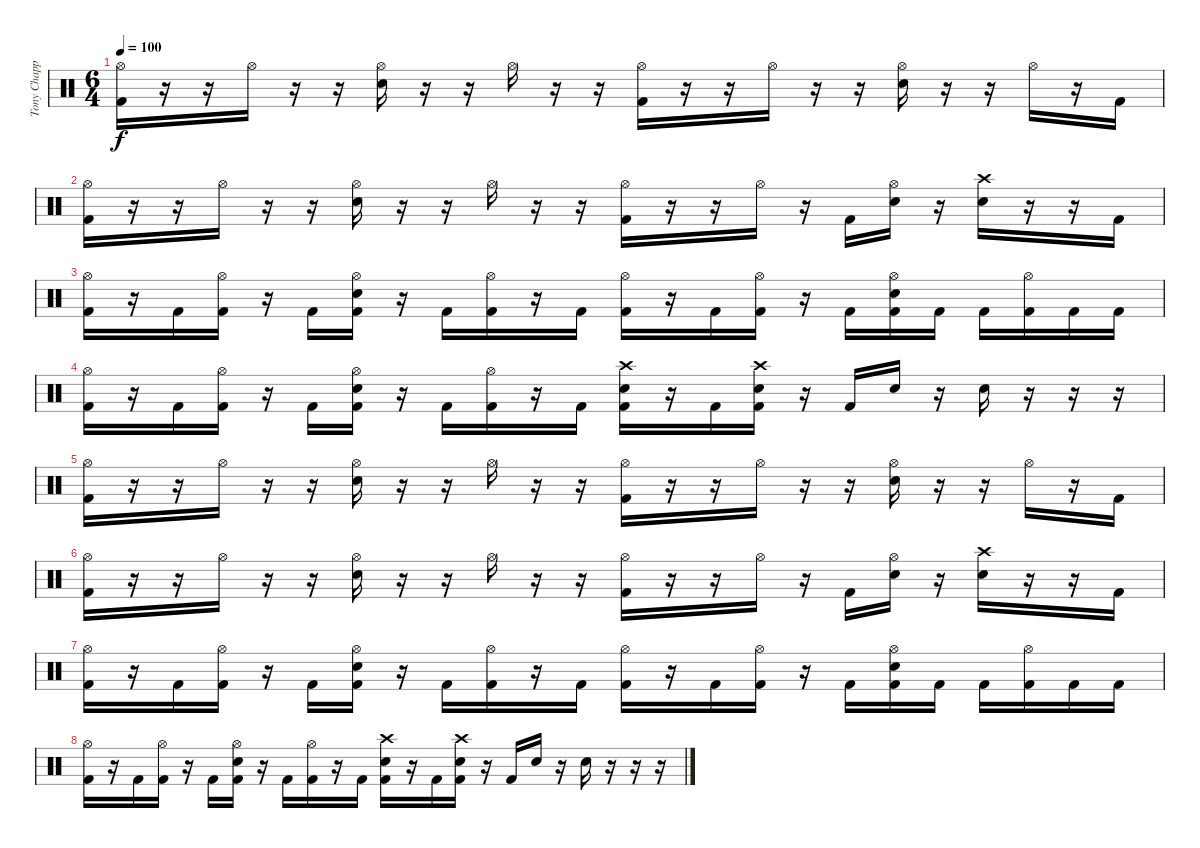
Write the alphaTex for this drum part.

\track ("Tony Chappelle: Drums" "Tony Chapp") {instrument percussion}
\staff {score}
\articulation defaults
\ts (6 4)
\tempo 100
\clef neutral
\ks c
("Hi-Hat (open)" "Kick (hit) 2").16{dy f} r.16 r.16 "Hi-Hat (open)".16 r.16 r.16 ("Hi-Hat (open)" "Electric Snare (hit)").16 r.16 r.16 "Hi-Hat (open)".16 r.16 r.16 ("Hi-Hat (open)" "Kick (hit) 2").16 r.16 r.16 "Hi-Hat (open)".16 r.16 r.16 ("Hi-Hat (open)" "Electric Snare (hit)").16 r.16 r.16 "Hi-Hat (open)".16 r.16 "Kick (hit) 2".16 |
("Hi-Hat (open)" "Kick (hit) 2").16 r.16 r.16 "Hi-Hat (open)".16 r.16 r.16 ("Hi-Hat (open)" "Electric Snare (hit)").16 r.16 r.16 "Hi-Hat (open)".16 r.16 r.16 ("Hi-Hat (open)" "Kick (hit) 2").16 r.16 r.16 "Hi-Hat (open)".16 r.16 "Kick (hit) 2".16 ("Hi-Hat (open)" "Electric Snare (hit)").16 r.16 ("Crash high (hit)" "Electric Snare (hit)").16 r.16 r.16 "Kick (hit) 2".16 |
("Hi-Hat (open)" "Kick (hit) 2").16 r.16 "Kick (hit) 2".16 ("Hi-Hat (open)" "Kick (hit) 2").16 r.16 "Kick (hit) 2".16 ("Kick (hit) 2" "Hi-Hat (open)" "Electric Snare (hit)").16 r.16 "Kick (hit) 2".16 ("Hi-Hat (open)" "Kick (hit) 2").16 r.16 "Kick (hit) 2".16 ("Hi-Hat (open)" "Kick (hit) 2").16 r.16 "Kick (hit) 2".16 ("Hi-Hat (open)" "Kick (hit) 2").16 r.16 "Kick (hit) 2".16 ("Kick (hit) 2" "Hi-Hat (open)" "Electric Snare (hit)").16 "Kick (hit) 2".16 "Kick (hit) 2".16 ("Hi-Hat (open)" "Kick (hit) 2").16 "Kick (hit) 2".16 "Kick (hit) 2".16 |
("Hi-Hat (open)" "Kick (hit) 2").16 r.16 "Kick (hit) 2".16 ("Hi-Hat (open)" "Kick (hit) 2").16 r.16 "Kick (hit) 2".16 ("Kick (hit) 2" "Hi-Hat (open)" "Electric Snare (hit)").16 r.16 "Kick (hit) 2".16 ("Hi-Hat (open)" "Kick (hit) 2").16 r.16 "Kick (hit) 2".16 ("Crash high (hit)" "Electric Snare (hit)" "Kick (hit) 2").16 r.16 "Kick (hit) 2".16 ("Crash high (hit)" "Electric Snare (hit)" "Kick (hit) 2").16 r.16 "Kick (hit) 2".16 "Electric Snare (hit)".16 r.16 "Electric Snare (hit)".16 r.16 r.16 r.16 |
("Hi-Hat (open)" "Kick (hit) 2").16{volume 12} r.16 r.16 "Hi-Hat (open)".16 r.16 r.16 ("Hi-Hat (open)" "Electric Snare (hit)").16 r.16 r.16 "Hi-Hat (open)".16 r.16 r.16 ("Hi-Hat (open)" "Kick (hit) 2").16 r.16 r.16 "Hi-Hat (open)".16 r.16 r.16 ("Hi-Hat (open)" "Electric Snare (hit)").16 r.16 r.16 "Hi-Hat (open)".16 r.16 "Kick (hit) 2".16 |
("Hi-Hat (open)" "Kick (hit) 2").16{volume 10} r.16 r.16 "Hi-Hat (open)".16 r.16 r.16 ("Hi-Hat (open)" "Electric Snare (hit)").16 r.16 r.16 "Hi-Hat (open)".16 r.16 r.16 ("Hi-Hat (open)" "Kick (hit) 2").16 r.16 r.16 "Hi-Hat (open)".16 r.16 "Kick (hit) 2".16 ("Hi-Hat (open)" "Electric Snare (hit)").16 r.16 ("Crash high (hit)" "Electric Snare (hit)").16 r.16 r.16 "Kick (hit) 2".16 |
("Hi-Hat (open)" "Kick (hit) 2").16 r.16 "Kick (hit) 2".16 ("Hi-Hat (open)" "Kick (hit) 2").16 r.16 "Kick (hit) 2".16 ("Kick (hit) 2" "Hi-Hat (open)" "Electric Snare (hit)").16 r.16 "Kick (hit) 2".16 ("Hi-Hat (open)" "Kick (hit) 2").16{volume 6} r.16 "Kick (hit) 2".16 ("Hi-Hat (open)" "Kick (hit) 2").16 r.16 "Kick (hit) 2".16 ("Hi-Hat (open)" "Kick (hit) 2").16 r.16 "Kick (hit) 2".16 ("Kick (hit) 2" "Hi-Hat (open)" "Electric Snare (hit)").16 "Kick (hit) 2".16 "Kick (hit) 2".16 ("Hi-Hat (open)" "Kick (hit) 2").16 "Kick (hit) 2".16 "Kick (hit) 2".16 |
("Hi-Hat (open)" "Kick (hit) 2").16 r.16 "Kick (hit) 2".16 ("Hi-Hat (open)" "Kick (hit) 2").16 r.16 "Kick (hit) 2".16 ("Kick (hit) 2" "Hi-Hat (open)" "Electric Snare (hit)").16{volume 0} r.16 "Kick (hit) 2".16 ("Hi-Hat (open)" "Kick (hit) 2").16 r.16 "Kick (hit) 2".16 ("Crash high (hit)" "Electric Snare (hit)" "Kick (hit) 2").16 r.16 "Kick (hit) 2".16 ("Crash high (hit)" "Electric Snare (hit)" "Kick (hit) 2").16 r.16 "Kick (hit) 2".16 "Electric Snare (hit)".16 r.16 "Electric Snare (hit)".16 r.16 r.16 r.16
